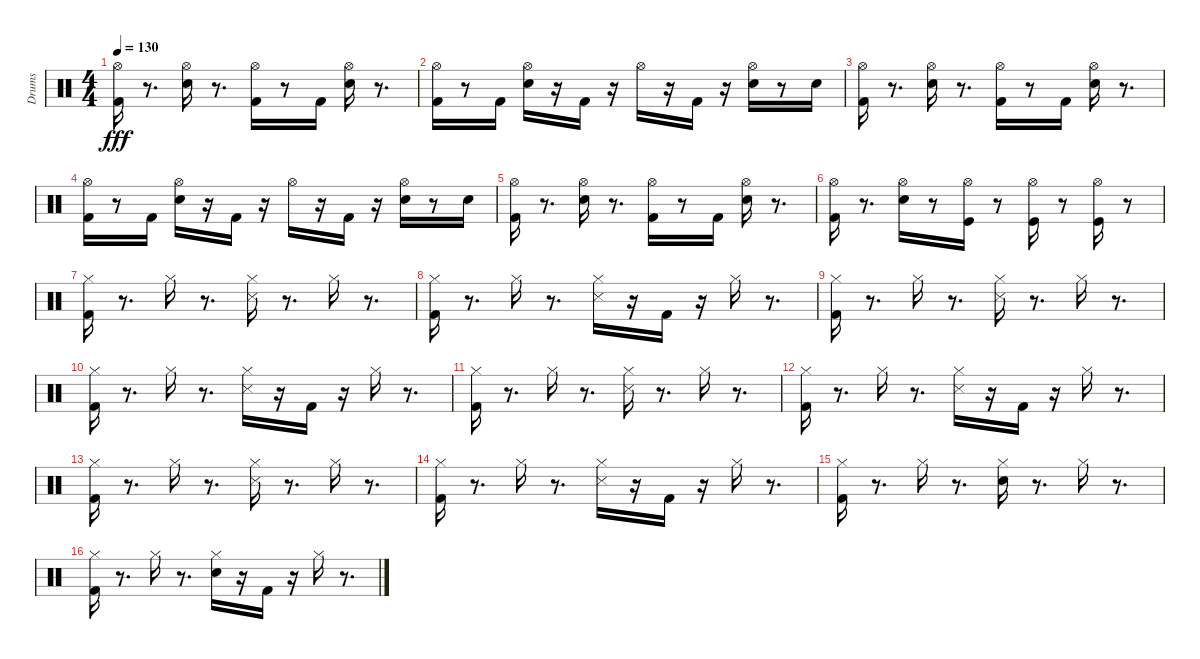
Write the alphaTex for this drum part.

\track ("Drums" "Drums") {instrument percussion}
\staff {score}
\articulation defaults
\ts (4 4)
\tempo 130
\clef neutral
\ks c
("Hi-Hat (open)" "Kick (hit) 2").16{dy fff} r.8{d} ("Hi-Hat (open)" "Snare (hit) 2").16 r.8{d} ("Hi-Hat (open)" "Kick (hit) 2").16 r.8 "Kick (hit) 2".16 ("Hi-Hat (open)" "Snare (hit) 2").16 r.8{d} |
("Hi-Hat (open)" "Kick (hit) 2").16 r.8 "Kick (hit) 2".16 ("Hi-Hat (open)" "Snare (hit) 2").16 r.16 "Kick (hit) 2".16 r.16 "Hi-Hat (open)".16 r.16 "Kick (hit) 2".16 r.16 ("Hi-Hat (open)" "Snare (hit) 2").16 r.8 "Snare (hit) 2".16 |
("Hi-Hat (open)" "Kick (hit) 2").16 r.8{d} ("Hi-Hat (open)" "Snare (hit) 2").16 r.8{d} ("Hi-Hat (open)" "Kick (hit) 2").16 r.8 "Kick (hit) 2".16 ("Hi-Hat (open)" "Snare (hit) 2").16 r.8{d} |
("Hi-Hat (open)" "Kick (hit) 2").16 r.8 "Kick (hit) 2".16 ("Hi-Hat (open)" "Snare (hit) 2").16 r.16 "Kick (hit) 2".16 r.16 "Hi-Hat (open)".16 r.16 "Kick (hit) 2".16 r.16 ("Hi-Hat (open)" "Snare (hit) 2").16 r.8 "Snare (hit) 2".16 |
("Hi-Hat (open)" "Kick (hit) 2").16 r.8{d} ("Hi-Hat (open)" "Snare (hit) 2").16 r.8{d} ("Hi-Hat (open)" "Kick (hit) 2").16 r.8 "Kick (hit) 2".16 ("Hi-Hat (open)" "Snare (hit) 2").16 r.8{d} |
("Hi-Hat (open)" "Kick (hit) 2").16 r.8{d} ("Hi-Hat (open)" "Snare (hit) 2").16 r.8 ("Hi-Hat (open)" "Kick (hit)").16 r.8 ("Hi-Hat (open)" "Kick (hit)").16 r.8 ("Hi-Hat (open)" "Kick (hit)").16 r.8 |
("Hi-Hat (closed)" "Kick (hit) 2").16 r.8{d} "Hi-Hat (closed)".16 r.8{d} ("Hi-Hat (closed)" "Snare (side stick) 3").16 r.8{d} "Hi-Hat (closed)".16 r.8{d} |
("Hi-Hat (closed)" "Kick (hit) 2").16 r.8{d} "Hi-Hat (closed)".16 r.8{d} ("Hi-Hat (closed)" "Snare (side stick) 3").16 r.16 "Kick (hit) 2".16 r.16 "Hi-Hat (closed)".16 r.8{d} |
("Hi-Hat (closed)" "Kick (hit) 2").16 r.8{d} "Hi-Hat (closed)".16 r.8{d} ("Hi-Hat (closed)" "Snare (side stick) 3").16 r.8{d} "Hi-Hat (closed)".16 r.8{d} |
("Hi-Hat (closed)" "Kick (hit) 2").16 r.8{d} "Hi-Hat (closed)".16 r.8{d} ("Hi-Hat (closed)" "Snare (side stick) 3").16 r.16 "Kick (hit) 2".16 r.16 "Hi-Hat (closed)".16 r.8{d} |
("Hi-Hat (closed)" "Kick (hit) 2").16 r.8{d} "Hi-Hat (closed)".16 r.8{d} ("Hi-Hat (closed)" "Snare (side stick) 3").16 r.8{d} "Hi-Hat (closed)".16 r.8{d} |
("Hi-Hat (closed)" "Kick (hit) 2").16 r.8{d} "Hi-Hat (closed)".16 r.8{d} ("Hi-Hat (closed)" "Snare (side stick) 3").16 r.16 "Kick (hit) 2".16 r.16 "Hi-Hat (closed)".16 r.8{d} |
("Hi-Hat (closed)" "Kick (hit) 2").16 r.8{d} "Hi-Hat (closed)".16 r.8{d} ("Hi-Hat (closed)" "Snare (side stick) 3").16 r.8{d} "Hi-Hat (closed)".16 r.8{d} |
("Hi-Hat (closed)" "Kick (hit) 2").16 r.8{d} "Hi-Hat (closed)".16 r.8{d} ("Hi-Hat (closed)" "Snare (side stick) 3").16 r.16 "Kick (hit) 2".16 r.16 "Hi-Hat (closed)".16 r.8{d} |
("Hi-Hat (closed)" "Kick (hit) 2").16 r.8{d} "Hi-Hat (closed)".16 r.8{d} ("Hi-Hat (closed)" "Snare (hit) 2").16 r.8{d} "Hi-Hat (closed)".16 r.8{d} |
("Hi-Hat (closed)" "Kick (hit) 2").16 r.8{d} "Hi-Hat (closed)".16 r.8{d} ("Hi-Hat (closed)" "Snare (hit) 2").16 r.16 "Kick (hit) 2".16 r.16 "Hi-Hat (closed)".16 r.8{d}
